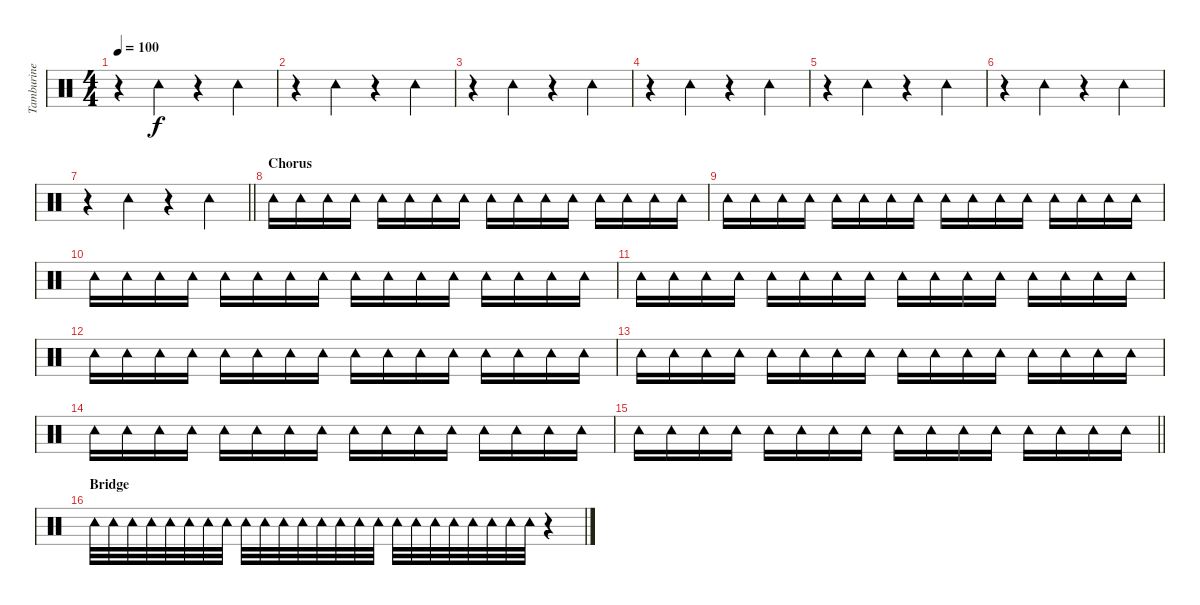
\track ("Tamburine" "Tamburine") {instrument percussion}
\staff {score}
\articulation defaults
\ts (4 4)
\tempo 100
\clef neutral
\ks c
r.4{dy f} "Tambourine (hit)".4 r.4 "Tambourine (hit)".4 |
r.4 "Tambourine (hit)".4 r.4 "Tambourine (hit)".4 |
r.4 "Tambourine (hit)".4 r.4 "Tambourine (hit)".4 |
r.4 "Tambourine (hit)".4 r.4 "Tambourine (hit)".4 |
r.4 "Tambourine (hit)".4 r.4 "Tambourine (hit)".4 |
r.4 "Tambourine (hit)".4 r.4 "Tambourine (hit)".4 |
\barLineRight lightlight
r.4 "Tambourine (hit)".4 r.4 "Tambourine (hit)".4 |
\section ("" "Chorus")
"Tambourine (hit)".16 "Tambourine (hit)".16 "Tambourine (hit)".16 "Tambourine (hit)".16 "Tambourine (hit)".16 "Tambourine (hit)".16 "Tambourine (hit)".16 "Tambourine (hit)".16 "Tambourine (hit)".16 "Tambourine (hit)".16 "Tambourine (hit)".16 "Tambourine (hit)".16 "Tambourine (hit)".16 "Tambourine (hit)".16 "Tambourine (hit)".16 "Tambourine (hit)".16 |
"Tambourine (hit)".16 "Tambourine (hit)".16 "Tambourine (hit)".16 "Tambourine (hit)".16 "Tambourine (hit)".16 "Tambourine (hit)".16 "Tambourine (hit)".16 "Tambourine (hit)".16 "Tambourine (hit)".16 "Tambourine (hit)".16 "Tambourine (hit)".16 "Tambourine (hit)".16 "Tambourine (hit)".16 "Tambourine (hit)".16 "Tambourine (hit)".16 "Tambourine (hit)".16 |
"Tambourine (hit)".16 "Tambourine (hit)".16 "Tambourine (hit)".16 "Tambourine (hit)".16 "Tambourine (hit)".16 "Tambourine (hit)".16 "Tambourine (hit)".16 "Tambourine (hit)".16 "Tambourine (hit)".16 "Tambourine (hit)".16 "Tambourine (hit)".16 "Tambourine (hit)".16 "Tambourine (hit)".16 "Tambourine (hit)".16 "Tambourine (hit)".16 "Tambourine (hit)".16 |
"Tambourine (hit)".16 "Tambourine (hit)".16 "Tambourine (hit)".16 "Tambourine (hit)".16 "Tambourine (hit)".16 "Tambourine (hit)".16 "Tambourine (hit)".16 "Tambourine (hit)".16 "Tambourine (hit)".16 "Tambourine (hit)".16 "Tambourine (hit)".16 "Tambourine (hit)".16 "Tambourine (hit)".16 "Tambourine (hit)".16 "Tambourine (hit)".16 "Tambourine (hit)".16 |
"Tambourine (hit)".16 "Tambourine (hit)".16 "Tambourine (hit)".16 "Tambourine (hit)".16 "Tambourine (hit)".16 "Tambourine (hit)".16 "Tambourine (hit)".16 "Tambourine (hit)".16 "Tambourine (hit)".16 "Tambourine (hit)".16 "Tambourine (hit)".16 "Tambourine (hit)".16 "Tambourine (hit)".16 "Tambourine (hit)".16 "Tambourine (hit)".16 "Tambourine (hit)".16 |
"Tambourine (hit)".16 "Tambourine (hit)".16 "Tambourine (hit)".16 "Tambourine (hit)".16 "Tambourine (hit)".16 "Tambourine (hit)".16 "Tambourine (hit)".16 "Tambourine (hit)".16 "Tambourine (hit)".16 "Tambourine (hit)".16 "Tambourine (hit)".16 "Tambourine (hit)".16 "Tambourine (hit)".16 "Tambourine (hit)".16 "Tambourine (hit)".16 "Tambourine (hit)".16 |
"Tambourine (hit)".16 "Tambourine (hit)".16 "Tambourine (hit)".16 "Tambourine (hit)".16 "Tambourine (hit)".16 "Tambourine (hit)".16 "Tambourine (hit)".16 "Tambourine (hit)".16 "Tambourine (hit)".16 "Tambourine (hit)".16 "Tambourine (hit)".16 "Tambourine (hit)".16 "Tambourine (hit)".16 "Tambourine (hit)".16 "Tambourine (hit)".16 "Tambourine (hit)".16 |
\barLineRight lightlight "Tambourine (hit)".16 "Tambourine (hit)".16 "Tambourine (hit)".16 "Tambourine (hit)".16 "Tambourine (hit)".16 "Tambourine (hit)".16 "Tambourine (hit)".16 "Tambourine (hit)".16 "Tambourine (hit)".16 "Tambourine (hit)".16 "Tambourine (hit)".16 "Tambourine (hit)".16 "Tambourine (hit)".16 "Tambourine (hit)".16 "Tambourine (hit)".16 "Tambourine (hit)".16
|
\section ("" "Bridge")
"Tambourine (hit)".32 "Tambourine (hit)".32 "Tambourine (hit)".32 "Tambourine (hit)".32 "Tambourine (hit)".32 "Tambourine (hit)".32 "Tambourine (hit)".32 "Tambourine (hit)".32 "Tambourine (hit)".32 "Tambourine (hit)".32 "Tambourine (hit)".32 "Tambourine (hit)".32 "Tambourine (hit)".32 "Tambourine (hit)".32 "Tambourine (hit)".32 "Tambourine (hit)".32 "Tambourine (hit)".32 "Tambourine (hit)".32 "Tambourine (hit)".32 "Tambourine (hit)".32 "Tambourine (hit)".32 "Tambourine (hit)".32 "Tambourine (hit)".32 "Tambourine (hit)".32 r.4
